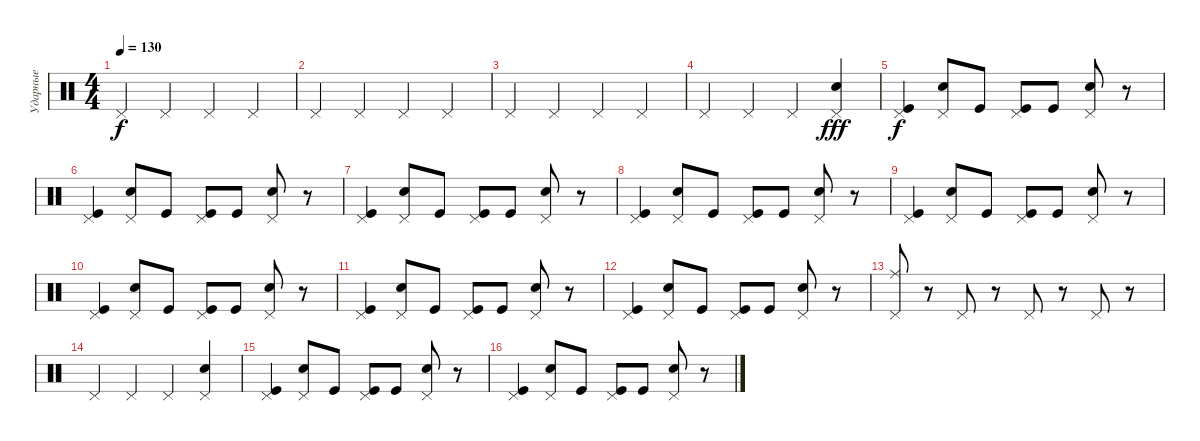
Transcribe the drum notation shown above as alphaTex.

\track ("Ударные" "Ударные") {instrument percussion}
\staff {score}
\articulation defaults
\ts (4 4)
\tempo 130
\clef neutral
\ks c "Pedal Hi-Hat (hit)".4{dy f} "Pedal Hi-Hat (hit)".4 "Pedal Hi-Hat (hit)".4 "Pedal Hi-Hat (hit)".4
|
"Pedal Hi-Hat (hit)".4 "Pedal Hi-Hat (hit)".4 "Pedal Hi-Hat (hit)".4 "Pedal Hi-Hat (hit)".4 |
"Pedal Hi-Hat (hit)".4 "Pedal Hi-Hat (hit)".4 "Pedal Hi-Hat (hit)".4 "Pedal Hi-Hat (hit)".4 |
"Pedal Hi-Hat (hit)".4 "Pedal Hi-Hat (hit)".4 "Pedal Hi-Hat (hit)".4 ("Electric Snare (hit)" "Pedal Hi-Hat (hit)").4{dy fff} |
("Pedal Hi-Hat (hit)" "Kick (hit)").4{dy f} ("Pedal Hi-Hat (hit)" "Electric Snare (hit)").8 "Kick (hit)".8 ("Pedal Hi-Hat (hit)" "Kick (hit)").8 "Kick (hit)".8 ("Pedal Hi-Hat (hit)" "Electric Snare (hit)").8 r.8 |
("Pedal Hi-Hat (hit)" "Kick (hit)").4 ("Pedal Hi-Hat (hit)" "Electric Snare (hit)").8 "Kick (hit)".8 ("Pedal Hi-Hat (hit)" "Kick (hit)").8 "Kick (hit)".8 ("Pedal Hi-Hat (hit)" "Electric Snare (hit)").8 r.8 |
("Pedal Hi-Hat (hit)" "Kick (hit)").4 ("Pedal Hi-Hat (hit)" "Electric Snare (hit)").8 "Kick (hit)".8 ("Pedal Hi-Hat (hit)" "Kick (hit)").8 "Kick (hit)".8 ("Pedal Hi-Hat (hit)" "Electric Snare (hit)").8 r.8 |
("Pedal Hi-Hat (hit)" "Kick (hit)").4 ("Pedal Hi-Hat (hit)" "Electric Snare (hit)").8 "Kick (hit)".8 ("Pedal Hi-Hat (hit)" "Kick (hit)").8 "Kick (hit)".8 ("Pedal Hi-Hat (hit)" "Electric Snare (hit)").8 r.8 |
("Pedal Hi-Hat (hit)" "Kick (hit)").4 ("Pedal Hi-Hat (hit)" "Electric Snare (hit)").8 "Kick (hit)".8 ("Pedal Hi-Hat (hit)" "Kick (hit)").8 "Kick (hit)".8 ("Pedal Hi-Hat (hit)" "Electric Snare (hit)").8 r.8 |
("Pedal Hi-Hat (hit)" "Kick (hit)").4 ("Pedal Hi-Hat (hit)" "Electric Snare (hit)").8 "Kick (hit)".8 ("Pedal Hi-Hat (hit)" "Kick (hit)").8 "Kick (hit)".8 ("Pedal Hi-Hat (hit)" "Electric Snare (hit)").8 r.8 |
("Pedal Hi-Hat (hit)" "Kick (hit)").4 ("Pedal Hi-Hat (hit)" "Electric Snare (hit)").8 "Kick (hit)".8 ("Pedal Hi-Hat (hit)" "Kick (hit)").8 "Kick (hit)".8 ("Pedal Hi-Hat (hit)" "Electric Snare (hit)").8 r.8 |
("Pedal Hi-Hat (hit)" "Kick (hit)").4 ("Pedal Hi-Hat (hit)" "Electric Snare (hit)").8 "Kick (hit)".8 ("Pedal Hi-Hat (hit)" "Kick (hit)").8 "Kick (hit)".8 ("Pedal Hi-Hat (hit)" "Electric Snare (hit)").8 r.8 |
("Pedal Hi-Hat (hit)" "Ride (middle)").8 r.8 "Pedal Hi-Hat (hit)".8 r.8 "Pedal Hi-Hat (hit)".8 r.8 "Pedal Hi-Hat (hit)".8 r.8 |
"Pedal Hi-Hat (hit)".4 "Pedal Hi-Hat (hit)".4 "Pedal Hi-Hat (hit)".4 ("Electric Snare (hit)" "Pedal Hi-Hat (hit)").4 |
("Pedal Hi-Hat (hit)" "Kick (hit)").4 ("Pedal Hi-Hat (hit)" "Electric Snare (hit)").8 "Kick (hit)".8 ("Pedal Hi-Hat (hit)" "Kick (hit)").8 "Kick (hit)".8 ("Pedal Hi-Hat (hit)" "Electric Snare (hit)").8 r.8 |
("Pedal Hi-Hat (hit)" "Kick (hit)").4 ("Pedal Hi-Hat (hit)" "Electric Snare (hit)").8 "Kick (hit)".8 ("Pedal Hi-Hat (hit)" "Kick (hit)").8 "Kick (hit)".8 ("Pedal Hi-Hat (hit)" "Electric Snare (hit)").8 r.8
